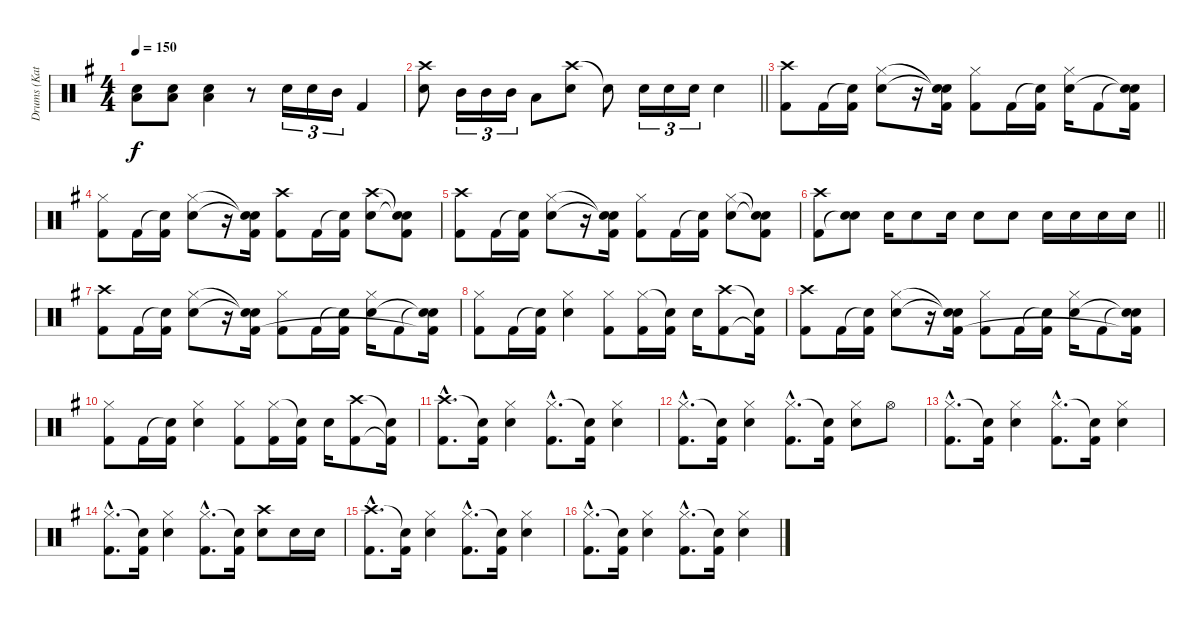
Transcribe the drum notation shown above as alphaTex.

\track ("Drums (Katsuji)" "Drums (Kat") {instrument percussion}
\staff {score}
\articulation defaults
\ts (4 4)
\tempo 150
\clef neutral
\ks g
("Snare (hit) 2" "Low Tom (hit)").8{dy f} ("Snare (hit) 2" "Low Tom (hit)").8 ("Snare (hit) 2" "Low Tom (hit)").4 r.8 "Snare (hit) 2".16{tu (3 2)} "Snare (hit) 2".16{tu (3 2)} "Mid Tom (hit)".16{tu (3 2)} "Kick (hit) 2".4 |
\barLineRight lightlight
("Crash high (hit)" "Snare (hit) 2").8 "Mid Tom (hit)".16{tu (3 2)} "Mid Tom (hit)".16{tu (3 2)} "Mid Tom (hit)".16{tu (3 2)} "Low Tom (hit)".8 ("Crash high (hit)" "Snare (hit) 2").8 "Snare (hit)"{t}.8 "Snare (hit) 2".16{tu (3 2)} "Snare (hit) 2".16{tu (3 2)} "Snare (hit) 2".16{tu (3 2)} "Snare (hit) 2".4 |
("Crash high (hit)" "Kick (hit) 2").8 "Kick (hit) 2".16 ("Snare (hit)"{t} "Kick (hit) 2").16 ("Hi-Hat (closed)" "Snare (hit) 2").8 r.16 ("Snare (hit)"{t} "Snare (hit)"{t} "Kick (hit) 2").16 ("Hi-Hat (closed)" "Kick (hit) 2").8 "Kick (hit) 2".16 ("Snare (hit)"{t} "Kick (hit) 2").16 ("Hi-Hat (closed)" "Snare (hit) 2").16 "Kick (hit) 2".8 ("Snare (hit)"{t} "Snare (hit)"{t} "Kick (hit) 2").16 |
("Hi-Hat (closed)" "Kick (hit) 2").8 "Kick (hit) 2".16 ("Snare (hit)"{t} "Kick (hit) 2").16 ("Hi-Hat (closed)" "Snare (hit) 2").8 r.16 ("Snare (hit)"{t} "Snare (hit)"{t} "Kick (hit) 2").16 ("Crash high (hit)" "Kick (hit) 2").8 "Kick (hit) 2".16 ("Snare (hit)"{t} "Kick (hit) 2").16 ("Crash high (hit)" "Snare (hit) 2").8 ("Snare (hit)"{t} "Snare (hit)"{t} "Kick (hit) 2").8 |
("Crash high (hit)" "Kick (hit) 2").8 "Kick (hit) 2".16 ("Snare (hit)"{t} "Kick (hit) 2").16 ("Hi-Hat (closed)" "Snare (hit) 2").8 r.16 ("Snare (hit)"{t} "Snare (hit)"{t} "Kick (hit) 2").16 ("Hi-Hat (closed)" "Kick (hit) 2").8 "Kick (hit) 2".16 ("Snare (hit)"{t} "Kick (hit) 2").16 ("Hi-Hat (closed)" "Snare (hit) 2").8 ("Snare (hit)"{t} "Snare (hit)"{t} "Kick (hit) 2").8 |
\barLineRight lightlight
("Crash high (hit)" "Kick (hit) 2").8 ("Snare (hit) 2" "Snare (hit)"{t}).8 "Snare (hit) 2".16 "Snare (hit) 2".8 "Snare (hit) 2".16 "Snare (hit) 2".8 "Snare (hit) 2".8 "Snare (hit) 2".16 "Snare (hit) 2".16 "Snare (hit) 2".16 "Snare (hit) 2".16 |
("Crash high (hit)" "Kick (hit) 2").8 "Kick (hit) 2".16 ("Snare (hit)"{t} "Kick (hit) 2").16 ("Hi-Hat (closed)" "Snare (hit) 2").8 r.16 ("Snare (hit)"{t} "Snare (hit)"{t} "Kick (hit) 2").16 ("Hi-Hat (closed)" "Kick (hit) 2").8 "Kick (hit) 2".16 ("Snare (hit)"{t} "Kick (hit) 2").16 ("Hi-Hat (closed)" "Snare (hit) 2").16 "Kick (hit) 2".8 ("Snare (hit)"{t} "Snare (hit)"{t} "Kick (hit) 2"{t}).16 |
("Hi-Hat (closed)" "Kick (hit) 2").8 "Kick (hit) 2".16 ("Snare (hit)"{t} "Kick (hit) 2").16 ("Hi-Hat (closed)" "Snare (hit) 2").4 ("Hi-Hat (closed)" "Kick (hit) 2").8 ("Hi-Hat (closed)" "Kick (hit) 2").16 ("Snare (hit)"{t} "Kick (hit) 2").16 "Snare (hit) 2".16 ("Crash high (hit)" "Kick (hit) 2").8 ("Snare (hit)"{t} "Kick (hit) 2"{t}).16 |
("Crash high (hit)" "Kick (hit) 2").8 "Kick (hit) 2".16 ("Snare (hit)"{t} "Kick (hit) 2").16 ("Hi-Hat (closed)" "Snare (hit) 2").8 r.16 ("Snare (hit)"{t} "Snare (hit)"{t} "Kick (hit) 2").16 ("Hi-Hat (closed)" "Kick (hit) 2").8 "Kick (hit) 2".16 ("Snare (hit)"{t} "Kick (hit) 2").16 ("Hi-Hat (closed)" "Snare (hit) 2").16 "Kick (hit) 2".8 ("Snare (hit)"{t} "Snare (hit)"{t} "Kick (hit) 2"{t}).16 |
("Hi-Hat (closed)" "Kick (hit) 2").8 "Kick (hit) 2".16 ("Snare (hit)"{t} "Kick (hit) 2").16 ("Hi-Hat (closed)" "Snare (hit) 2").4 ("Hi-Hat (closed)" "Kick (hit) 2").8 ("Hi-Hat (closed)" "Kick (hit) 2").16 ("Snare (hit)"{t} "Kick (hit) 2").16 "Snare (hit) 2".16 ("Crash high (hit)" "Kick (hit) 2").8 ("Snare (hit)"{t} "Kick (hit) 2"{t}).16 |
("Crash high (hit)"{hac} "Kick (hit) 2"{hac}).8{d} ("Snare (hit)"{t} "Kick (hit) 2").16 ("Hi-Hat (closed)" "Snare (hit) 2").4 ("Hi-Hat (closed)"{hac} "Kick (hit) 2"{hac}).8{d} ("Snare (hit)"{t} "Kick (hit) 2").16 ("Hi-Hat (closed)" "Snare (hit) 2").4 |
("Hi-Hat (closed)"{hac} "Kick (hit) 2"{hac}).8{d} ("Snare (hit)"{t} "Kick (hit) 2").16 ("Hi-Hat (closed)" "Snare (hit) 2").4 ("Hi-Hat (closed)"{hac} "Kick (hit) 2"{hac}).8{d} ("Snare (hit)"{t} "Kick (hit) 2").16 ("Hi-Hat (closed)" "Snare (hit) 2").8 "Hi-Hat (open)".8 |
("Hi-Hat (closed)"{hac} "Kick (hit) 2"{hac}).8{d} ("Snare (hit)"{t} "Kick (hit) 2").16 ("Hi-Hat (closed)" "Snare (hit) 2").4 ("Hi-Hat (closed)"{hac} "Kick (hit) 2"{hac}).8{d} ("Snare (hit)"{t} "Kick (hit) 2").16 ("Hi-Hat (closed)" "Snare (hit) 2").4 |
("Hi-Hat (closed)"{hac} "Kick (hit) 2"{hac}).8{d} ("Snare (hit)"{t} "Kick (hit) 2").16 ("Hi-Hat (closed)" "Snare (hit) 2").4 ("Hi-Hat (closed)"{hac} "Kick (hit) 2"{hac}).8{d} ("Snare (hit)"{t} "Kick (hit) 2").16 ("Crash high (hit)" "Snare (hit) 2").8 "Snare (hit) 2".16 "Snare (hit) 2".16 |
("Crash high (hit)"{hac} "Kick (hit) 2"{hac}).8{d} ("Snare (hit)"{t} "Kick (hit) 2").16 ("Hi-Hat (closed)" "Snare (hit) 2").4 ("Hi-Hat (closed)"{hac} "Kick (hit) 2"{hac}).8{d} ("Snare (hit)"{t} "Kick (hit) 2").16 ("Hi-Hat (closed)" "Snare (hit) 2").4 |
("Hi-Hat (closed)"{hac} "Kick (hit) 2"{hac}).8{d} ("Snare (hit)"{t} "Kick (hit) 2").16 ("Hi-Hat (closed)" "Snare (hit) 2").4 ("Hi-Hat (closed)"{hac} "Kick (hit) 2"{hac}).8{d} ("Snare (hit)"{t} "Kick (hit) 2").16 ("Hi-Hat (closed)" "Snare (hit) 2").4
